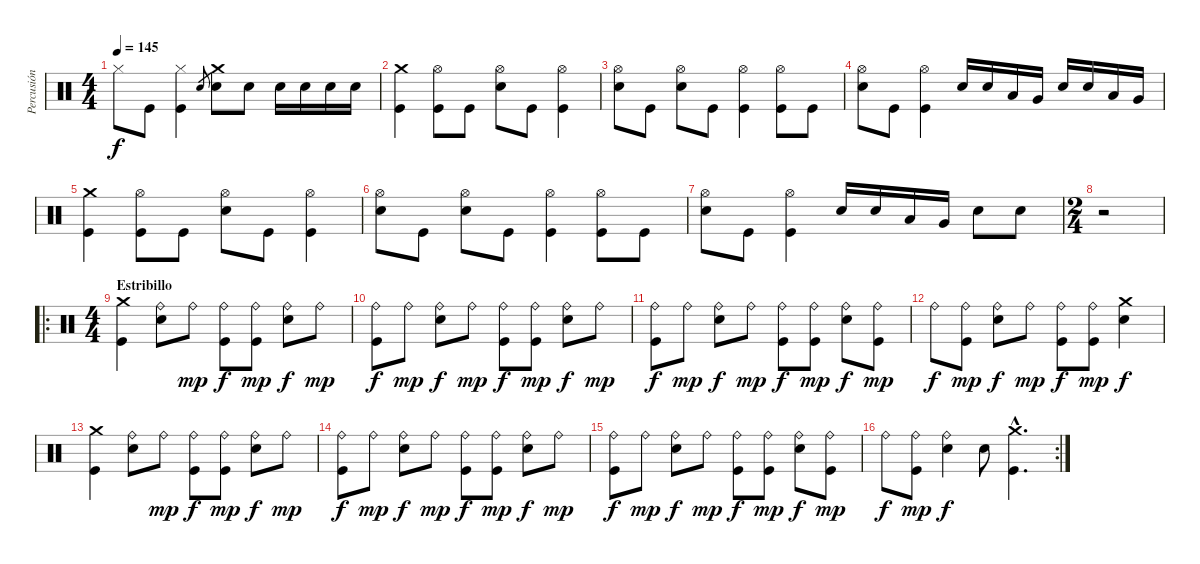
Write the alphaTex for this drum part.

\track ("Percusión" "Percusión") {instrument percussion}
\staff {score}
\articulation defaults
\ts (4 4)
\tempo 145
\clef neutral
\ks c "Hi-Hat (closed)".8{dy f} "Kick (hit)".8
("Hi-Hat (closed)" "Kick (hit)").4 "Snare (hit) 2".8{gr} ("Crash medium (hit)" "Snare (hit) 2").8 "Snare (hit) 2".8 "Snare (hit) 2".16 "Snare (hit) 2".16 "Snare (hit) 2".16 "Snare (hit) 2".16 |
("Crash medium (hit)" "Kick (hit)").4 ("Hi-Hat (open)" "Kick (hit)").8 "Kick (hit)".8 ("Hi-Hat (open)" "Snare (hit) 2").8 "Kick (hit)".8 ("Hi-Hat (open)" "Kick (hit)").4 |
("Hi-Hat (open)" "Snare (hit) 2").8 "Kick (hit)".8 ("Hi-Hat (open)" "Snare (hit) 2").8 "Kick (hit)".8 ("Hi-Hat (open)" "Kick (hit)").4 ("Hi-Hat (open)" "Kick (hit)").8 "Kick (hit)".8 |
("Hi-Hat (open)" "Snare (hit) 2").8 "Kick (hit)".8 ("Hi-Hat (open)" "Kick (hit)").4 "Snare (hit) 2".16 "Snare (hit) 2".16 "Low Tom (hit)".16 "Very Low Tom (hit)".16 "Snare (hit) 2".16 "Snare (hit) 2".16 "Low Tom (hit)".16 "Very Low Tom (hit)".16 |
("Crash medium (hit)" "Kick (hit)").4 ("Hi-Hat (open)" "Kick (hit)").8 "Kick (hit)".8 ("Hi-Hat (open)" "Snare (hit) 2").8 "Kick (hit)".8 ("Hi-Hat (open)" "Kick (hit)").4 |
("Hi-Hat (open)" "Snare (hit) 2").8 "Kick (hit)".8 ("Hi-Hat (open)" "Snare (hit) 2").8 "Kick (hit)".8 ("Hi-Hat (open)" "Kick (hit)").4 ("Hi-Hat (open)" "Kick (hit)").8 "Kick (hit)".8 |
("Hi-Hat (open)" "Snare (hit) 2").8 "Kick (hit)".8 ("Hi-Hat (open)" "Kick (hit)").4 "Snare (hit) 2".16 "Snare (hit) 2".16 "Low Tom (hit)".16 "Very Low Tom (hit)".16 "Snare (hit) 2".8 "Snare (hit) 2".8 |
\ts (2 4)
r.2 |
\ro
\ts (4 4)
\section ("" "Estribillo")
("Crash medium (hit)" "Kick (hit)").4 ("Ride (bell)" "Snare (hit) 2").8 "Ride (bell)".8{dy mp} ("Ride (bell)" "Kick (hit)").8{dy f} ("Ride (bell)" "Kick (hit)").8{dy mp} ("Ride (bell)" "Snare (hit) 2").8{dy f} "Ride (bell)".8{dy mp} |
("Ride (bell)" "Kick (hit)").8{dy f} "Ride (bell)".8{dy mp} ("Ride (bell)" "Snare (hit) 2").8{dy f} "Ride (bell)".8{dy mp} ("Ride (bell)" "Kick (hit)").8{dy f} ("Ride (bell)" "Kick (hit)").8{dy mp} ("Ride (bell)" "Snare (hit) 2").8{dy f} "Ride (bell)".8{dy mp} |
("Ride (bell)" "Kick (hit)").8{dy f} "Ride (bell)".8{dy mp} ("Ride (bell)" "Snare (hit) 2").8{dy f} "Ride (bell)".8{dy mp} ("Ride (bell)" "Kick (hit)").8{dy f} ("Ride (bell)" "Kick (hit)").8{dy mp} ("Ride (bell)" "Snare (hit) 2").8{dy f} ("Ride (bell)" "Kick (hit)").8{dy mp} |
"Ride (bell)".8{dy f} ("Ride (bell)" "Kick (hit)").8{dy mp} ("Ride (bell)" "Snare (hit) 2").8{dy f} "Ride (bell)".8{dy mp} ("Ride (bell)" "Kick (hit)").8{dy f} ("Ride (bell)" "Kick (hit)").8{dy mp} ("Crash medium (hit)" "Snare (hit) 2").4{dy f} |
("Crash medium (hit)" "Kick (hit)").4 ("Ride (bell)" "Snare (hit) 2").8 "Ride (bell)".8{dy mp} ("Ride (bell)" "Kick (hit)").8{dy f} ("Ride (bell)" "Kick (hit)").8{dy mp} ("Ride (bell)" "Snare (hit) 2").8{dy f} "Ride (bell)".8{dy mp} |
("Ride (bell)" "Kick (hit)").8{dy f} "Ride (bell)".8{dy mp} ("Ride (bell)" "Snare (hit) 2").8{dy f} "Ride (bell)".8{dy mp} ("Ride (bell)" "Kick (hit)").8{dy f} ("Ride (bell)" "Kick (hit)").8{dy mp} ("Ride (bell)" "Snare (hit) 2").8{dy f} "Ride (bell)".8{dy mp} |
("Ride (bell)" "Kick (hit)").8{dy f} "Ride (bell)".8{dy mp} ("Ride (bell)" "Snare (hit) 2").8{dy f} "Ride (bell)".8{dy mp} ("Ride (bell)" "Kick (hit)").8{dy f} ("Ride (bell)" "Kick (hit)").8{dy mp} ("Ride (bell)" "Snare (hit) 2").8{dy f} ("Ride (bell)" "Kick (hit)").8{dy mp} |
\rc 2 "Ride (bell)".8{dy f}
("Ride (bell)" "Kick (hit)").8{dy mp} ("Ride (bell)" "Snare (hit) 2").4{dy f} "Snare (hit) 2".8 ("Crash medium (hit)"{hac} "Kick (hit)"{hac}).4{d}
